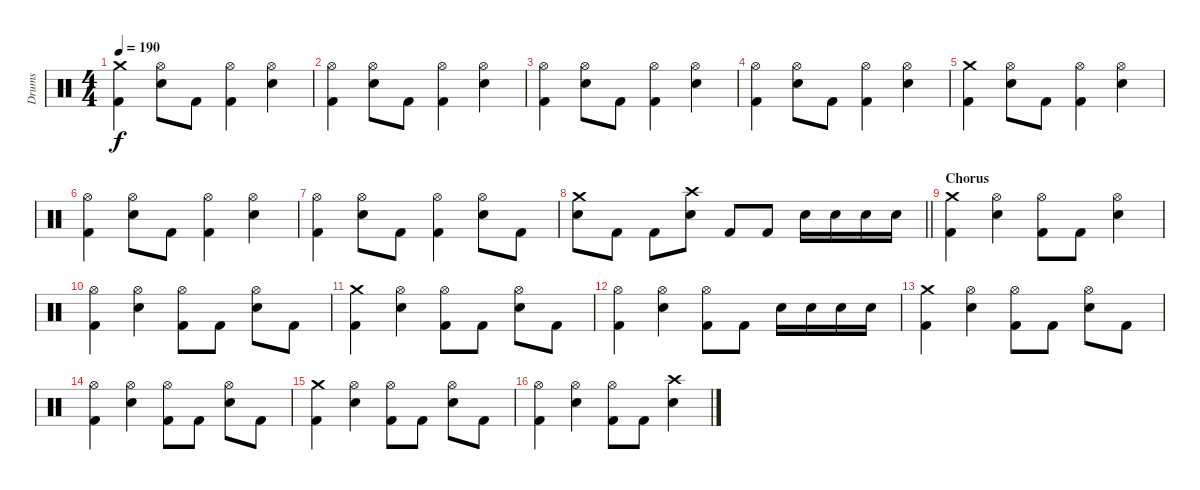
\track ("Drums" "Drums") {instrument percussion}
\staff {score}
\articulation defaults
\ts (4 4)
\tempo 190
\clef neutral
\ks c
("Crash medium (hit)" "Kick (hit) 2").4{dy f} ("Hi-Hat (open)" "Electric Snare (hit)").8 "Kick (hit) 2".8 ("Hi-Hat (open)" "Kick (hit) 2").4 ("Hi-Hat (open)" "Electric Snare (hit)").4 |
("Hi-Hat (open)" "Kick (hit) 2").4 ("Hi-Hat (open)" "Electric Snare (hit)").8 "Kick (hit) 2".8 ("Hi-Hat (open)" "Kick (hit) 2").4 ("Hi-Hat (open)" "Electric Snare (hit)").4 |
("Hi-Hat (open)" "Kick (hit) 2").4 ("Hi-Hat (open)" "Electric Snare (hit)").8 "Kick (hit) 2".8 ("Hi-Hat (open)" "Kick (hit) 2").4 ("Hi-Hat (open)" "Electric Snare (hit)").4 |
("Hi-Hat (open)" "Kick (hit) 2").4 ("Hi-Hat (open)" "Electric Snare (hit)").8 "Kick (hit) 2".8 ("Hi-Hat (open)" "Kick (hit) 2").4 ("Hi-Hat (open)" "Electric Snare (hit)").4 |
("Crash medium (hit)" "Kick (hit) 2").4 ("Hi-Hat (open)" "Electric Snare (hit)").8 "Kick (hit) 2".8 ("Hi-Hat (open)" "Kick (hit) 2").4 ("Hi-Hat (open)" "Electric Snare (hit)").4 |
("Hi-Hat (open)" "Kick (hit) 2").4 ("Hi-Hat (open)" "Electric Snare (hit)").8 "Kick (hit) 2".8 ("Hi-Hat (open)" "Kick (hit) 2").4 ("Hi-Hat (open)" "Electric Snare (hit)").4 |
("Hi-Hat (open)" "Kick (hit) 2").4 ("Hi-Hat (open)" "Electric Snare (hit)").8 "Kick (hit) 2".8 ("Hi-Hat (open)" "Kick (hit) 2").4 ("Hi-Hat (open)" "Electric Snare (hit)").8 "Kick (hit) 2".8 |
\barLineRight lightlight
("Crash medium (hit)" "Electric Snare (hit)").8 "Kick (hit) 2".8 "Kick (hit) 2".8 ("Crash high (hit)" "Electric Snare (hit)").8 "Kick (hit) 2".8 "Kick (hit) 2".8 "Electric Snare (hit)".16 "Electric Snare (hit)".16 "Electric Snare (hit)".16 "Electric Snare (hit)".16 |
\section ("" "Chorus")
("Crash medium (hit)" "Kick (hit) 2").4 ("Hi-Hat (open)" "Electric Snare (hit)").4 ("Hi-Hat (open)" "Kick (hit) 2").8 "Kick (hit) 2".8 ("Hi-Hat (open)" "Electric Snare (hit)").4 |
("Hi-Hat (open)" "Kick (hit) 2").4 ("Hi-Hat (open)" "Electric Snare (hit)").4 ("Hi-Hat (open)" "Kick (hit) 2").8 "Kick (hit) 2".8 ("Hi-Hat (open)" "Electric Snare (hit)").8 "Kick (hit) 2".8 |
("Crash medium (hit)" "Kick (hit) 2").4 ("Hi-Hat (open)" "Electric Snare (hit)").4 ("Hi-Hat (open)" "Kick (hit) 2").8 "Kick (hit) 2".8 ("Hi-Hat (open)" "Electric Snare (hit)").8 "Kick (hit) 2".8 |
("Hi-Hat (open)" "Kick (hit) 2").4 ("Hi-Hat (open)" "Electric Snare (hit)").4 ("Hi-Hat (open)" "Kick (hit) 2").8 "Kick (hit) 2".8 "Electric Snare (hit)".16 "Electric Snare (hit)".16 "Electric Snare (hit)".16 "Electric Snare (hit)".16 |
("Crash medium (hit)" "Kick (hit) 2").4 ("Hi-Hat (open)" "Electric Snare (hit)").4 ("Hi-Hat (open)" "Kick (hit) 2").8 "Kick (hit) 2".8 ("Hi-Hat (open)" "Electric Snare (hit)").8 "Kick (hit) 2".8 |
("Hi-Hat (open)" "Kick (hit) 2").4 ("Hi-Hat (open)" "Electric Snare (hit)").4 ("Hi-Hat (open)" "Kick (hit) 2").8 "Kick (hit) 2".8 ("Hi-Hat (open)" "Electric Snare (hit)").8 "Kick (hit) 2".8 |
("Crash medium (hit)" "Kick (hit) 2").4 ("Hi-Hat (open)" "Electric Snare (hit)").4 ("Hi-Hat (open)" "Kick (hit) 2").8 "Kick (hit) 2".8 ("Hi-Hat (open)" "Electric Snare (hit)").8 "Kick (hit) 2".8 |
("Hi-Hat (open)" "Kick (hit) 2").4 ("Hi-Hat (open)" "Electric Snare (hit)").4 ("Hi-Hat (open)" "Kick (hit) 2").8 "Kick (hit) 2".8 ("Crash high (hit)" "Electric Snare (hit)").4
